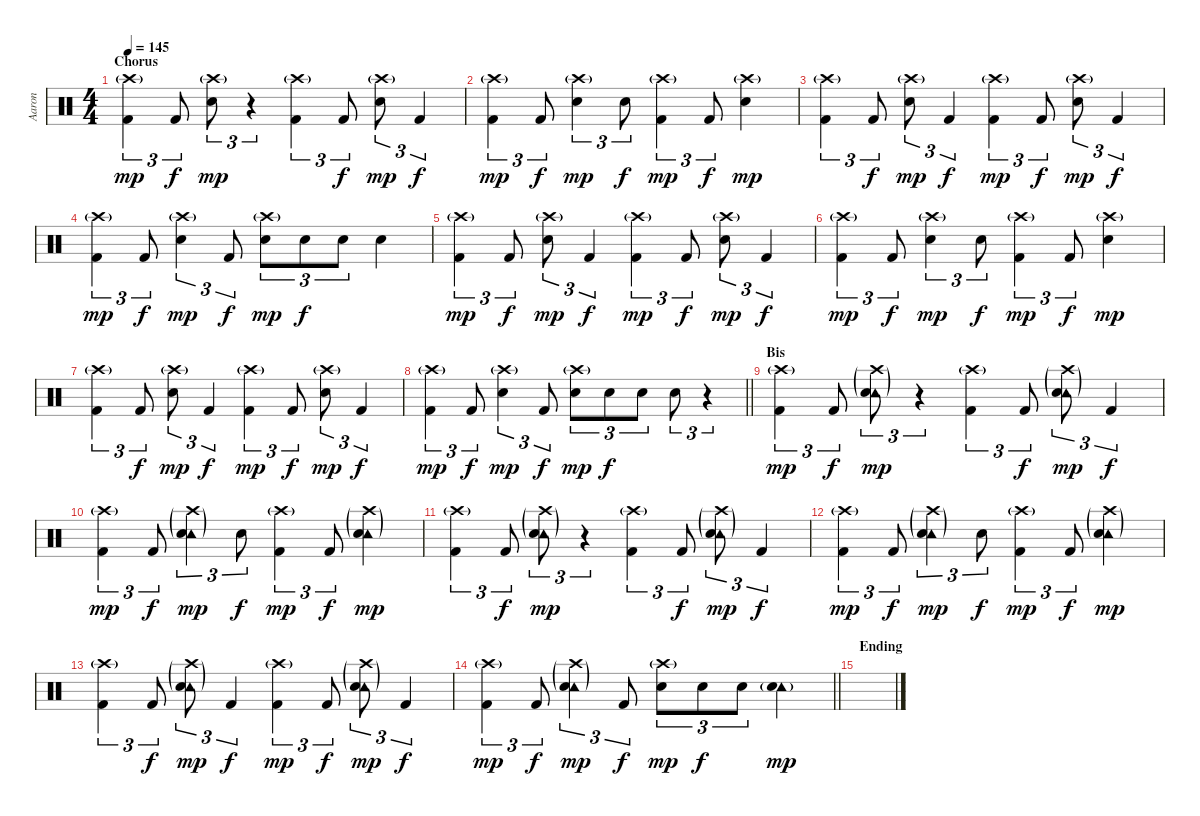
\track ("Aaron" "Aaron") {instrument percussion}
\staff {score}
\articulation defaults
\ts (4 4)
\section ("" "Chorus")
\tempo 145
\clef neutral
\ks c
("Crash high (hit)"{g} "Kick (hit) 2").4{tu (3 2) dy mp} "Kick (hit) 2".8{tu (3 2) dy f} ("Crash high (hit)"{g} "Electric Snare (hit)").8{tu (3 2) dy mp} r.4{tu (3 2)} ("Crash high (hit)"{g} "Kick (hit) 2").4{tu (3 2)} "Kick (hit) 2".8{tu (3 2) dy f} ("Crash high (hit)"{g} "Electric Snare (hit)").8{tu (3 2) dy mp} "Kick (hit) 2".4{tu (3 2) dy f} |
("Crash high (hit)"{g} "Kick (hit) 2").4{tu (3 2) dy mp} "Kick (hit) 2".8{tu (3 2) dy f} ("Crash high (hit)"{g} "Electric Snare (hit)").4{tu (3 2) dy mp} "Electric Snare (hit)".8{tu (3 2) dy f} ("Crash high (hit)"{g} "Kick (hit) 2").4{tu (3 2) dy mp} "Kick (hit) 2".8{tu (3 2) dy f} ("Crash high (hit)"{g} "Electric Snare (hit)").4{dy mp} |
("Crash high (hit)"{g} "Kick (hit) 2").4{tu (3 2)} "Kick (hit) 2".8{tu (3 2) dy f} ("Crash high (hit)"{g} "Electric Snare (hit)").8{tu (3 2) dy mp} "Kick (hit) 2".4{tu (3 2) dy f} ("Crash high (hit)"{g} "Kick (hit) 2").4{tu (3 2) dy mp} "Kick (hit) 2".8{tu (3 2) dy f} ("Crash high (hit)"{g} "Electric Snare (hit)").8{tu (3 2) dy mp} "Kick (hit) 2".4{tu (3 2) dy f} |
("Crash high (hit)"{g} "Kick (hit) 2").4{tu (3 2) dy mp} "Kick (hit) 2".8{tu (3 2) dy f} ("Crash high (hit)"{g} "Electric Snare (hit)").4{tu (3 2) dy mp} "Kick (hit) 2".8{tu (3 2) dy f} ("Crash high (hit)"{g} "Electric Snare (hit)").8{tu (3 2) dy mp} "Electric Snare (hit)".8{tu (3 2) dy f} "Electric Snare (hit)".8{tu (3 2)} "Electric Snare (hit)".4 |
("Crash high (hit)"{g} "Kick (hit) 2").4{tu (3 2) dy mp} "Kick (hit) 2".8{tu (3 2) dy f} ("Crash high (hit)"{g} "Electric Snare (hit)").8{tu (3 2) dy mp} "Kick (hit) 2".4{tu (3 2) dy f} ("Crash high (hit)"{g} "Kick (hit) 2").4{tu (3 2) dy mp} "Kick (hit) 2".8{tu (3 2) dy f} ("Crash high (hit)"{g} "Electric Snare (hit)").8{tu (3 2) dy mp} "Kick (hit) 2".4{tu (3 2) dy f} |
("Crash high (hit)"{g} "Kick (hit) 2").4{tu (3 2) dy mp} "Kick (hit) 2".8{tu (3 2) dy f} ("Crash high (hit)"{g} "Electric Snare (hit)").4{tu (3 2) dy mp} "Electric Snare (hit)".8{tu (3 2) dy f} ("Crash high (hit)"{g} "Kick (hit) 2").4{tu (3 2) dy mp} "Kick (hit) 2".8{tu (3 2) dy f} ("Crash high (hit)"{g} "Electric Snare (hit)").4{dy mp} |
("Crash high (hit)"{g} "Kick (hit) 2").4{tu (3 2)} "Kick (hit) 2".8{tu (3 2) dy f} ("Crash high (hit)"{g} "Electric Snare (hit)").8{tu (3 2) dy mp} "Kick (hit) 2".4{tu (3 2) dy f} ("Crash high (hit)"{g} "Kick (hit) 2").4{tu (3 2) dy mp} "Kick (hit) 2".8{tu (3 2) dy f} ("Crash high (hit)"{g} "Electric Snare (hit)").8{tu (3 2) dy mp} "Kick (hit) 2".4{tu (3 2) dy f} |
\barLineRight lightlight
("Crash high (hit)"{g} "Kick (hit) 2").4{tu (3 2) dy mp} "Kick (hit) 2".8{tu (3 2) dy f} ("Crash high (hit)"{g} "Electric Snare (hit)").4{tu (3 2) dy mp} "Kick (hit) 2".8{tu (3 2) dy f} ("Crash high (hit)"{g} "Electric Snare (hit)").8{tu (3 2) dy mp} "Electric Snare (hit)".8{tu (3 2) dy f} "Electric Snare (hit)".8{tu (3 2)} "Electric Snare (hit)".8{tu (3 2)} r.4{tu (3 2)} |
\section ("" "Bis")
("Crash high (hit)"{g} "Kick (hit) 2").4{tu (3 2) dy mp} "Kick (hit) 2".8{tu (3 2) dy f} ("Crash high (hit)"{g} "Tambourine (hit)"{g} "Electric Snare (hit)").8{tu (3 2) dy mp} r.4{tu (3 2)} ("Crash high (hit)"{g} "Kick (hit) 2").4{tu (3 2)} "Kick (hit) 2".8{tu (3 2) dy f} ("Crash high (hit)"{g} "Tambourine (hit)"{g} "Electric Snare (hit)").8{tu (3 2) dy mp} "Kick (hit) 2".4{tu (3 2) dy f} |
("Crash high (hit)"{g} "Kick (hit) 2").4{tu (3 2) dy mp} "Kick (hit) 2".8{tu (3 2) dy f} ("Crash high (hit)"{g} "Tambourine (hit)"{g} "Electric Snare (hit)").4{tu (3 2) dy mp} "Electric Snare (hit)".8{tu (3 2) dy f} ("Crash high (hit)"{g} "Kick (hit) 2").4{tu (3 2) dy mp} "Kick (hit) 2".8{tu (3 2) dy f} ("Crash high (hit)"{g} "Tambourine (hit)"{g} "Electric Snare (hit)").4{dy mp} |
("Crash high (hit)"{g} "Kick (hit) 2").4{tu (3 2)} "Kick (hit) 2".8{tu (3 2) dy f} ("Crash high (hit)"{g} "Tambourine (hit)"{g} "Electric Snare (hit)").8{tu (3 2) dy mp} r.4{tu (3 2)} ("Crash high (hit)"{g} "Kick (hit) 2").4{tu (3 2)} "Kick (hit) 2".8{tu (3 2) dy f} ("Crash high (hit)"{g} "Tambourine (hit)"{g} "Electric Snare (hit)").8{tu (3 2) dy mp} "Kick (hit) 2".4{tu (3 2) dy f} |
("Crash high (hit)"{g} "Kick (hit) 2").4{tu (3 2) dy mp} "Kick (hit) 2".8{tu (3 2) dy f} ("Crash high (hit)"{g} "Tambourine (hit)"{g} "Electric Snare (hit)").4{tu (3 2) dy mp} "Electric Snare (hit)".8{tu (3 2) dy f} ("Crash high (hit)"{g} "Kick (hit) 2").4{tu (3 2) dy mp} "Kick (hit) 2".8{tu (3 2) dy f} ("Crash high (hit)"{g} "Tambourine (hit)"{g} "Electric Snare (hit)").4{dy mp} |
("Crash high (hit)"{g} "Kick (hit) 2").4{tu (3 2)} "Kick (hit) 2".8{tu (3 2) dy f} ("Crash high (hit)"{g} "Tambourine (hit)"{g} "Electric Snare (hit)").8{tu (3 2) dy mp} "Kick (hit) 2".4{tu (3 2) dy f} ("Crash high (hit)"{g} "Kick (hit) 2").4{tu (3 2) dy mp} "Kick (hit) 2".8{tu (3 2) dy f} ("Crash high (hit)"{g} "Tambourine (hit)"{g} "Electric Snare (hit)").8{tu (3 2) dy mp} "Kick (hit) 2".4{tu (3 2) dy f} |
\barLineRight lightlight
("Crash high (hit)"{g} "Kick (hit) 2").4{tu (3 2) dy mp} "Kick (hit) 2".8{tu (3 2) dy f} ("Crash high (hit)"{g} "Tambourine (hit)"{g} "Electric Snare (hit)").4{tu (3 2) dy mp} "Kick (hit) 2".8{tu (3 2) dy f} ("Crash high (hit)"{g} "Electric Snare (hit)").8{tu (3 2) dy mp} "Electric Snare (hit)".8{tu (3 2) dy f} "Electric Snare (hit)".8{tu (3 2)} ("Tambourine (hit)"{g} "Electric Snare (hit)").4{dy mp} |
\section ("" "Ending")
